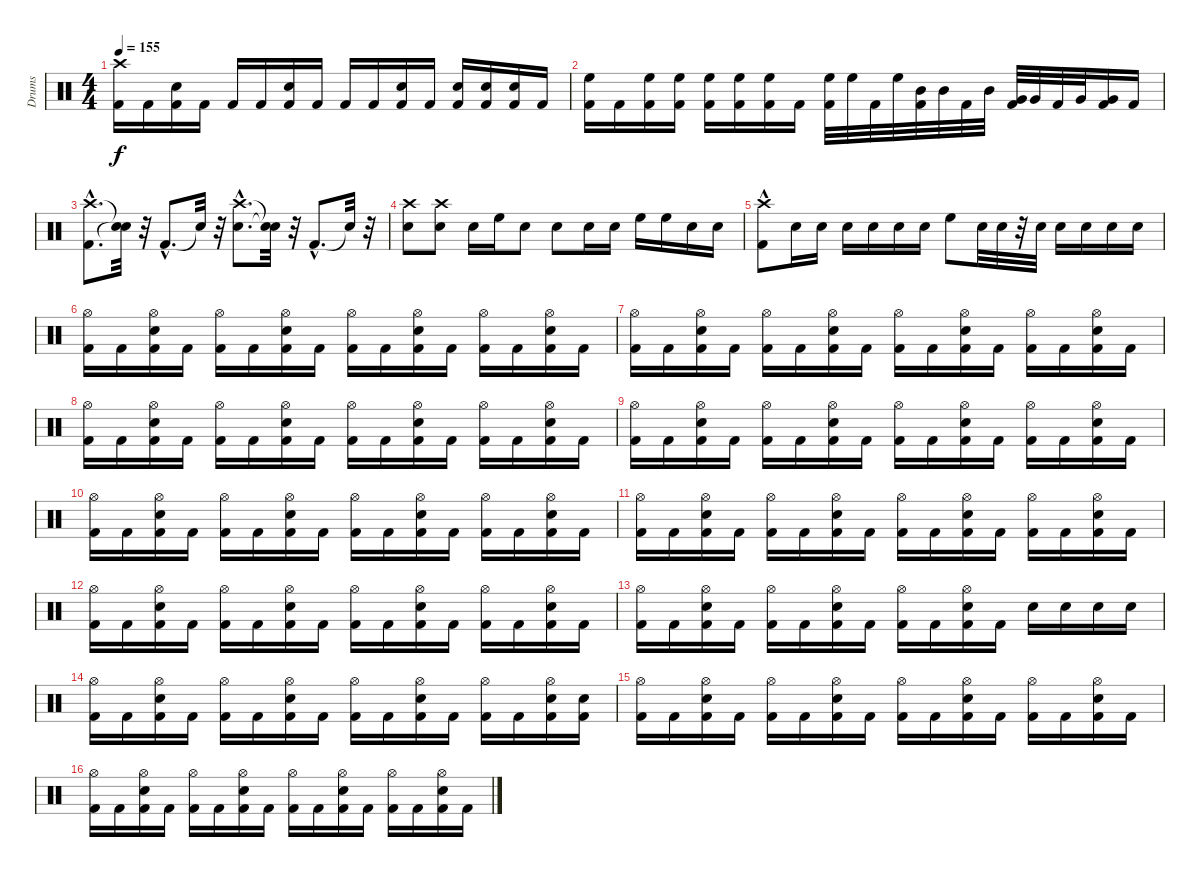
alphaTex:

\track ("Drums" "Drums") {instrument percussion}
\staff {score}
\articulation defaults
\ts (4 4)
\tempo 155
\clef neutral
\ks c
("Kick (hit) 2" "Crash high (hit)").16{dy f} "Kick (hit) 2".16 ("Kick (hit) 2" "Snare (hit) 2").16 "Kick (hit) 2".16 "Kick (hit) 2".16 "Kick (hit) 2".16 ("Kick (hit) 2" "Snare (hit) 2").16 "Kick (hit) 2".16 "Kick (hit) 2".16 "Kick (hit) 2".16 ("Kick (hit) 2" "Snare (hit) 2").16 "Kick (hit) 2".16 ("Kick (hit) 2" "Snare (hit) 2").16 ("Kick (hit) 2" "Snare (hit) 2").16 ("Kick (hit) 2" "Snare (hit) 2").16 "Kick (hit) 2".16 |
("Kick (hit) 2" "High Floor Tom (hit)").16 "Kick (hit) 2".16 ("Kick (hit) 2" "High Floor Tom (hit)").16 ("Kick (hit) 2" "High Floor Tom (hit)").16 ("Kick (hit) 2" "High Floor Tom (hit)").16 ("Kick (hit) 2" "High Floor Tom (hit)").16 ("Kick (hit) 2" "High Floor Tom (hit)").16 "Kick (hit) 2".16 ("Kick (hit) 2" "High Floor Tom (hit)").32 "High Floor Tom (hit)".32 "Kick (hit) 2".32 "High Floor Tom (hit)".32 ("Kick (hit) 2" "Mid Tom (hit)").32 "Mid Tom (hit)".32 "Kick (hit) 2".32 "Mid Tom (hit)".32 ("Kick (hit) 2" "Very Low Tom (hit)").32 "Very Low Tom (hit)".32 "Kick (hit) 2".32 "Very Low Tom (hit)".32 ("Kick (hit) 2" "Very Low Tom (hit)").16 "Kick (hit) 2".16 |
("Kick (hit) 2"{hac} "Crash high (hit)"{hac}).8{d} ("Snare (hit)"{t} "Snare (hit)"{t}).32 r.32 "Kick (hit) 2"{hac}.8{d} "Snare (hit)"{t}.32 r.32 ("Snare (hit) 2"{hac} "Crash high (hit)"{hac}).8{d} ("Snare (hit)"{t} "Snare (hit)"{t}).32 r.32 "Kick (hit) 2"{hac}.8{d} "Snare (hit)"{t}.32 r.32 |
("Snare (hit) 2" "Crash high (hit)").8 ("Snare (hit) 2" "Crash high (hit)").8 "Snare (hit) 2".16 "High Floor Tom (hit)".16 "Snare (hit) 2".8 "Snare (hit) 2".8 "Snare (hit) 2".16 "Snare (hit) 2".16 "High Floor Tom (hit)".16 "High Floor Tom (hit)".16 "Snare (hit) 2".16 "Snare (hit) 2".16 |
("Kick (hit) 2"{hac} "Crash high (hit)").8 "Snare (hit) 2".16 "Snare (hit) 2".16 "Snare (hit) 2".16 "Snare (hit) 2".16 "Snare (hit) 2".16 "Snare (hit) 2".16 "High Floor Tom (hit)".8 "Snare (hit) 2".32 "Snare (hit) 2".32 r.32 "Snare (hit) 2".32 "Snare (hit) 2".16 "Snare (hit) 2".16 "Snare (hit) 2".16 "Snare (hit) 2".16 |
("Kick (hit) 2" "Hi-Hat (open)").16 "Kick (hit) 2".16 ("Kick (hit) 2" "Snare (hit) 2" "Hi-Hat (open)").16 "Kick (hit) 2".16 ("Kick (hit) 2" "Hi-Hat (open)").16 "Kick (hit) 2".16 ("Kick (hit) 2" "Snare (hit) 2" "Hi-Hat (open)").16 "Kick (hit) 2".16 ("Kick (hit) 2" "Hi-Hat (open)").16 "Kick (hit) 2".16 ("Kick (hit) 2" "Snare (hit) 2" "Hi-Hat (open)").16 "Kick (hit) 2".16 ("Kick (hit) 2" "Hi-Hat (open)").16 "Kick (hit) 2".16 ("Kick (hit) 2" "Snare (hit) 2" "Hi-Hat (open)").16 "Kick (hit) 2".16 |
("Kick (hit) 2" "Hi-Hat (open)").16 "Kick (hit) 2".16 ("Kick (hit) 2" "Snare (hit) 2" "Hi-Hat (open)").16 "Kick (hit) 2".16 ("Kick (hit) 2" "Hi-Hat (open)").16 "Kick (hit) 2".16 ("Kick (hit) 2" "Snare (hit) 2" "Hi-Hat (open)").16 "Kick (hit) 2".16 ("Kick (hit) 2" "Hi-Hat (open)").16 "Kick (hit) 2".16 ("Kick (hit) 2" "Snare (hit) 2" "Hi-Hat (open)").16 "Kick (hit) 2".16 ("Kick (hit) 2" "Hi-Hat (open)").16 "Kick (hit) 2".16 ("Kick (hit) 2" "Snare (hit) 2" "Hi-Hat (open)").16 "Kick (hit) 2".16 |
("Kick (hit) 2" "Hi-Hat (open)").16 "Kick (hit) 2".16 ("Kick (hit) 2" "Snare (hit) 2" "Hi-Hat (open)").16 "Kick (hit) 2".16 ("Kick (hit) 2" "Hi-Hat (open)").16 "Kick (hit) 2".16 ("Kick (hit) 2" "Snare (hit) 2" "Hi-Hat (open)").16 "Kick (hit) 2".16 ("Kick (hit) 2" "Hi-Hat (open)").16 "Kick (hit) 2".16 ("Kick (hit) 2" "Snare (hit) 2" "Hi-Hat (open)").16 "Kick (hit) 2".16 ("Kick (hit) 2" "Hi-Hat (open)").16 "Kick (hit) 2".16 ("Kick (hit) 2" "Snare (hit) 2" "Hi-Hat (open)").16 "Kick (hit) 2".16 |
("Kick (hit) 2" "Hi-Hat (open)").16 "Kick (hit) 2".16 ("Kick (hit) 2" "Snare (hit) 2" "Hi-Hat (open)").16 "Kick (hit) 2".16 ("Kick (hit) 2" "Hi-Hat (open)").16 "Kick (hit) 2".16 ("Kick (hit) 2" "Snare (hit) 2" "Hi-Hat (open)").16 "Kick (hit) 2".16 ("Kick (hit) 2" "Hi-Hat (open)").16 "Kick (hit) 2".16 ("Kick (hit) 2" "Snare (hit) 2" "Hi-Hat (open)").16 "Kick (hit) 2".16 ("Kick (hit) 2" "Hi-Hat (open)").16 "Kick (hit) 2".16 ("Kick (hit) 2" "Snare (hit) 2" "Hi-Hat (open)").16 "Kick (hit) 2".16 |
("Kick (hit) 2" "Hi-Hat (open)").16 "Kick (hit) 2".16 ("Kick (hit) 2" "Snare (hit) 2" "Hi-Hat (open)").16 "Kick (hit) 2".16 ("Kick (hit) 2" "Hi-Hat (open)").16 "Kick (hit) 2".16 ("Kick (hit) 2" "Snare (hit) 2" "Hi-Hat (open)").16 "Kick (hit) 2".16 ("Kick (hit) 2" "Hi-Hat (open)").16 "Kick (hit) 2".16 ("Kick (hit) 2" "Snare (hit) 2" "Hi-Hat (open)").16 "Kick (hit) 2".16 ("Kick (hit) 2" "Hi-Hat (open)").16 "Kick (hit) 2".16 ("Kick (hit) 2" "Snare (hit) 2" "Hi-Hat (open)").16 "Kick (hit) 2".16 |
("Kick (hit) 2" "Hi-Hat (open)").16 "Kick (hit) 2".16 ("Kick (hit) 2" "Snare (hit) 2" "Hi-Hat (open)").16 "Kick (hit) 2".16 ("Kick (hit) 2" "Hi-Hat (open)").16 "Kick (hit) 2".16 ("Kick (hit) 2" "Snare (hit) 2" "Hi-Hat (open)").16 "Kick (hit) 2".16 ("Kick (hit) 2" "Hi-Hat (open)").16 "Kick (hit) 2".16 ("Kick (hit) 2" "Snare (hit) 2" "Hi-Hat (open)").16 "Kick (hit) 2".16 ("Kick (hit) 2" "Hi-Hat (open)").16 "Kick (hit) 2".16 ("Kick (hit) 2" "Snare (hit) 2" "Hi-Hat (open)").16 "Kick (hit) 2".16 |
("Kick (hit) 2" "Hi-Hat (open)").16 "Kick (hit) 2".16 ("Kick (hit) 2" "Snare (hit) 2" "Hi-Hat (open)").16 "Kick (hit) 2".16 ("Kick (hit) 2" "Hi-Hat (open)").16 "Kick (hit) 2".16 ("Kick (hit) 2" "Snare (hit) 2" "Hi-Hat (open)").16 "Kick (hit) 2".16 ("Kick (hit) 2" "Hi-Hat (open)").16 "Kick (hit) 2".16 ("Kick (hit) 2" "Snare (hit) 2" "Hi-Hat (open)").16 "Kick (hit) 2".16 ("Kick (hit) 2" "Hi-Hat (open)").16 "Kick (hit) 2".16 ("Kick (hit) 2" "Snare (hit) 2" "Hi-Hat (open)").16 "Kick (hit) 2".16 |
("Kick (hit) 2" "Hi-Hat (open)").16 "Kick (hit) 2".16 ("Kick (hit) 2" "Snare (hit) 2" "Hi-Hat (open)").16 "Kick (hit) 2".16 ("Kick (hit) 2" "Hi-Hat (open)").16 "Kick (hit) 2".16 ("Kick (hit) 2" "Snare (hit) 2" "Hi-Hat (open)").16 "Kick (hit) 2".16 ("Kick (hit) 2" "Hi-Hat (open)").16 "Kick (hit) 2".16 ("Kick (hit) 2" "Snare (hit) 2" "Hi-Hat (open)").16 "Kick (hit) 2".16 "Snare (hit) 2".16 "Snare (hit) 2".16 "Snare (hit) 2".16 "Snare (hit) 2".16 |
("Kick (hit) 2" "Hi-Hat (open)").16 "Kick (hit) 2".16 ("Kick (hit) 2" "Snare (hit) 2" "Hi-Hat (open)").16 "Kick (hit) 2".16 ("Kick (hit) 2" "Hi-Hat (open)").16 "Kick (hit) 2".16 ("Kick (hit) 2" "Snare (hit) 2" "Hi-Hat (open)").16 "Kick (hit) 2".16 ("Kick (hit) 2" "Hi-Hat (open)").16 "Kick (hit) 2".16 ("Kick (hit) 2" "Snare (hit) 2" "Hi-Hat (open)").16 "Kick (hit) 2".16 ("Kick (hit) 2" "Hi-Hat (open)").16 "Kick (hit) 2".16 ("Kick (hit) 2" "Hi-Hat (open)" "Snare (hit) 2").16 ("Kick (hit) 2" "Snare (hit) 2").16 |
("Kick (hit) 2" "Hi-Hat (open)").16 "Kick (hit) 2".16 ("Kick (hit) 2" "Snare (hit) 2" "Hi-Hat (open)").16 "Kick (hit) 2".16 ("Kick (hit) 2" "Hi-Hat (open)").16 "Kick (hit) 2".16 ("Kick (hit) 2" "Snare (hit) 2" "Hi-Hat (open)").16 "Kick (hit) 2".16 ("Kick (hit) 2" "Hi-Hat (open)").16 "Kick (hit) 2".16 ("Kick (hit) 2" "Snare (hit) 2" "Hi-Hat (open)").16 "Kick (hit) 2".16 ("Kick (hit) 2" "Hi-Hat (open)").16 "Kick (hit) 2".16 ("Kick (hit) 2" "Snare (hit) 2" "Hi-Hat (open)").16 "Kick (hit) 2".16 |
("Kick (hit) 2" "Hi-Hat (open)").16 "Kick (hit) 2".16 ("Kick (hit) 2" "Snare (hit) 2" "Hi-Hat (open)").16 "Kick (hit) 2".16 ("Kick (hit) 2" "Hi-Hat (open)").16 "Kick (hit) 2".16 ("Kick (hit) 2" "Snare (hit) 2" "Hi-Hat (open)").16 "Kick (hit) 2".16 ("Kick (hit) 2" "Hi-Hat (open)").16 "Kick (hit) 2".16 ("Kick (hit) 2" "Snare (hit) 2" "Hi-Hat (open)").16 "Kick (hit) 2".16 ("Kick (hit) 2" "Hi-Hat (open)").16 "Kick (hit) 2".16 ("Kick (hit) 2" "Snare (hit) 2" "Hi-Hat (open)").16 "Kick (hit) 2".16
